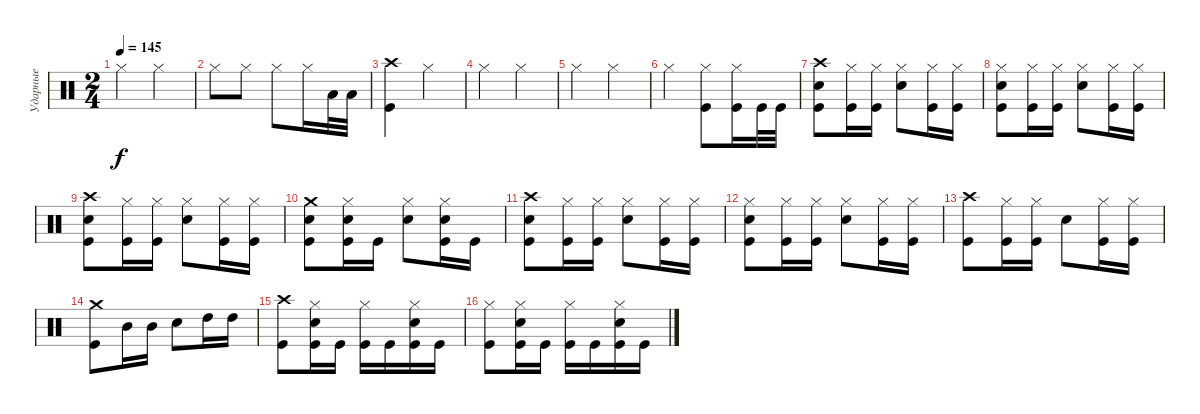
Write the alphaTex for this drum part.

\track ("Ударные" "Ударные") {instrument percussion}
\staff {score}
\articulation defaults
\ts (2 4)
\tempo 145
\clef neutral
\ks c "Hi-Hat (closed)".4{dy f} "Hi-Hat (closed)".4
|
"Hi-Hat (closed)".8 "Hi-Hat (closed)".8 "Hi-Hat (closed)".8 "Hi-Hat (closed)".16 "Low Tom (hit)".32 "Low Tom (hit)".32 |
("Crash high (hit)" "Kick (hit)").4 "Hi-Hat (closed)".4 |
"Hi-Hat (closed)".4 "Hi-Hat (closed)".4 |
"Hi-Hat (closed)".4 "Hi-Hat (closed)".4 |
"Hi-Hat (closed)".4 ("Hi-Hat (closed)" "Kick (hit)").8 ("Hi-Hat (closed)" "Kick (hit)").16 "Kick (hit)".32 "Kick (hit)".32 |
("Crash high (hit)" "Electric Snare (hit)" "Kick (hit)").8 ("Hi-Hat (closed)" "Kick (hit)").16 ("Hi-Hat (closed)" "Kick (hit)").16 ("Hi-Hat (closed)" "Electric Snare (hit)").8 ("Hi-Hat (closed)" "Kick (hit)").16 ("Hi-Hat (closed)" "Kick (hit)").16 |
("Hi-Hat (closed)" "Electric Snare (hit)" "Kick (hit)").8 ("Hi-Hat (closed)" "Kick (hit)").16 ("Hi-Hat (closed)" "Kick (hit)").16 ("Hi-Hat (closed)" "Electric Snare (hit)").8 ("Hi-Hat (closed)" "Kick (hit)").16 ("Hi-Hat (closed)" "Kick (hit)").16 |
("Crash high (hit)" "Electric Snare (hit)" "Kick (hit)").8 ("Hi-Hat (closed)" "Kick (hit)").16 ("Hi-Hat (closed)" "Kick (hit)").16 ("Hi-Hat (closed)" "Electric Snare (hit)").8 ("Hi-Hat (closed)" "Kick (hit)").16 ("Hi-Hat (closed)" "Kick (hit)").16 |
("Crash medium (hit)" "Electric Snare (hit)" "Kick (hit)").8 ("Hi-Hat (closed)" "Electric Snare (hit)" "Kick (hit)").16 "Kick (hit)".16 ("Hi-Hat (closed)" "Electric Snare (hit)").8 ("Hi-Hat (closed)" "Electric Snare (hit)" "Kick (hit)").16 "Kick (hit)".16 |
("Crash high (hit)" "Electric Snare (hit)" "Kick (hit)").8 ("Hi-Hat (closed)" "Kick (hit)").16 ("Hi-Hat (closed)" "Kick (hit)").16 ("Hi-Hat (closed)" "Electric Snare (hit)").8 ("Hi-Hat (closed)" "Kick (hit)").16 ("Hi-Hat (closed)" "Kick (hit)").16 |
("Hi-Hat (closed)" "Electric Snare (hit)" "Kick (hit)").8 ("Hi-Hat (closed)" "Kick (hit)").16 ("Hi-Hat (closed)" "Kick (hit)").16 ("Hi-Hat (closed)" "Electric Snare (hit)").8 ("Hi-Hat (closed)" "Kick (hit)").16 ("Hi-Hat (closed)" "Kick (hit)").16 |
("Crash high (hit)" "Kick (hit)").8 ("Hi-Hat (closed)" "Kick (hit)").16 ("Hi-Hat (closed)" "Kick (hit)").16 "Electric Snare (hit)".8 ("Hi-Hat (closed)" "Kick (hit)").16 ("Hi-Hat (closed)" "Kick (hit)").16 |
("Crash medium (hit)" "Kick (hit)").8 "Mid Tom (hit)".16 "Mid Tom (hit)".16 "Electric Snare (hit)".8 "High Tom (hit)".16 "High Tom (hit)".16 |
("Crash high (hit)" "Kick (hit)").8 ("Hi-Hat (closed)" "Electric Snare (hit)" "Kick (hit)").16 "Kick (hit)".16 ("Hi-Hat (closed)" "Kick (hit)").16 "Kick (hit)".16 ("Hi-Hat (closed)" "Electric Snare (hit)" "Kick (hit)").16 "Kick (hit)".16 |
("Hi-Hat (closed)" "Kick (hit)").8 ("Hi-Hat (closed)" "Electric Snare (hit)" "Kick (hit)").16 "Kick (hit)".16 ("Hi-Hat (closed)" "Kick (hit)").16 "Kick (hit)".16 ("Hi-Hat (closed)" "Electric Snare (hit)" "Kick (hit)").16 "Kick (hit)".16
